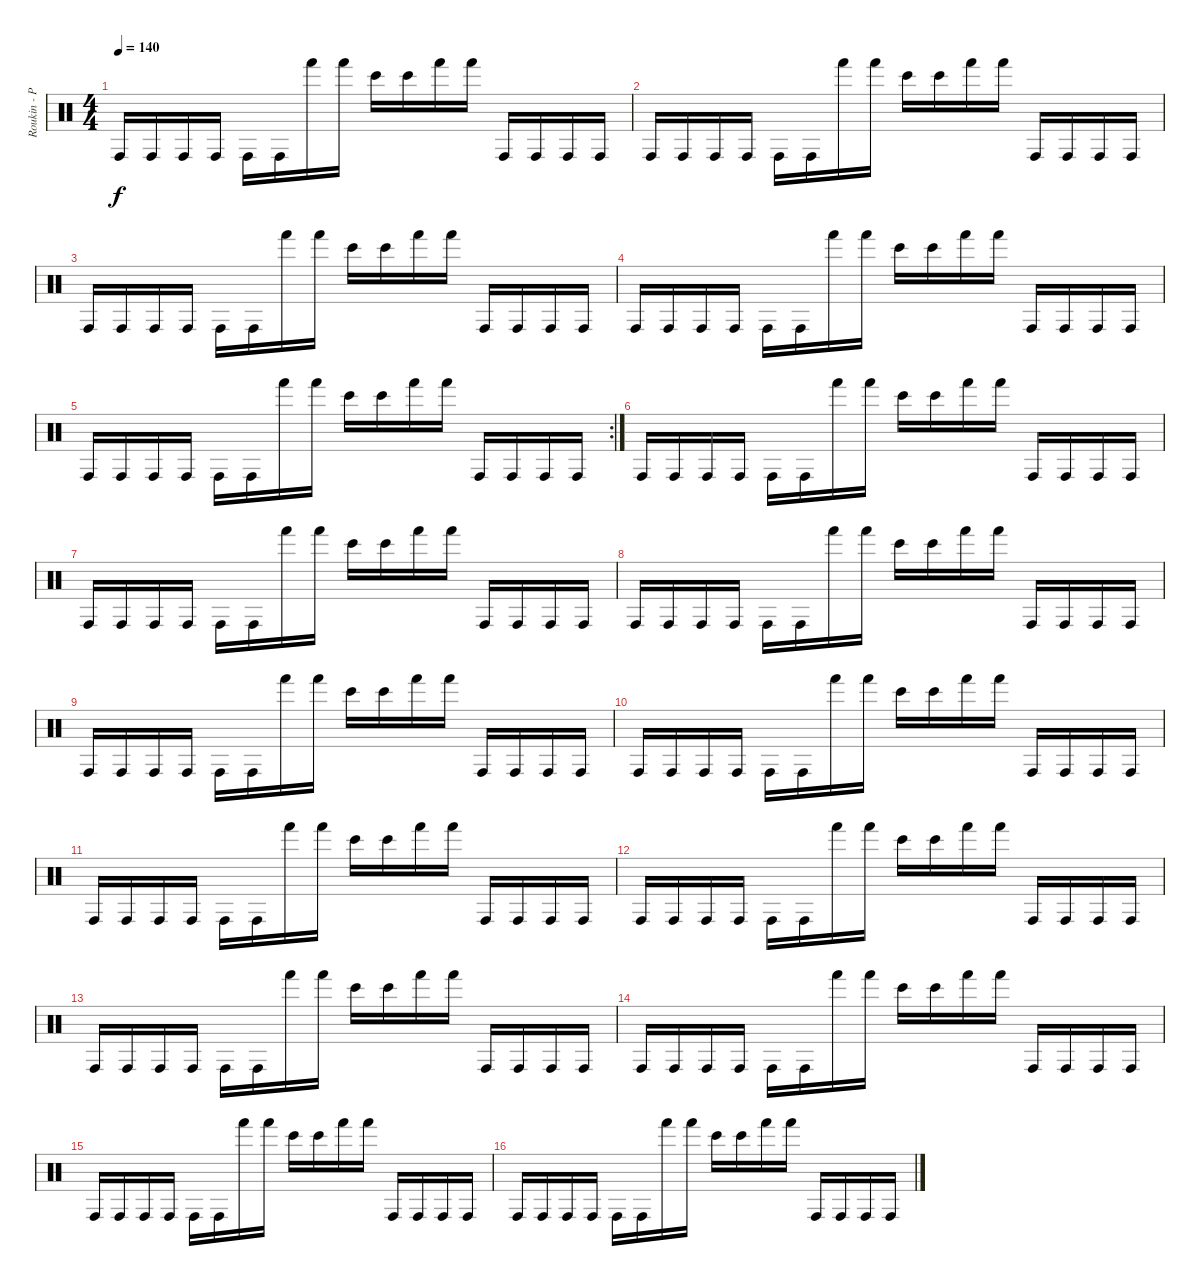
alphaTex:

\track ("Roukin - Percus" "Roukin - P") {instrument percussion}
\staff {score}
\articulation defaults
\ts (4 4)
\tempo 140
\clef neutral
\ks c "Conga high (hit)".16{dy f} "Conga high (hit)".16 "Conga high (hit)".16 "Conga high (hit)".16 "Conga high (hit)".16 "Conga high (hit)".16 "Hand (hit)".16 "Hand (hit)".16 "Bongo High (hit)".16 "Bongo High (hit)".16 "Hand (hit)".16 "Hand (hit)".16 "Conga high (hit)".16 "Conga high (hit)".16 "Conga high (hit)".16 "Conga high (hit)".16
|
"Conga high (hit)".16 "Conga high (hit)".16 "Conga high (hit)".16 "Conga high (hit)".16 "Conga high (hit)".16 "Conga high (hit)".16 "Hand (hit)".16 "Hand (hit)".16 "Bongo High (hit)".16 "Bongo High (hit)".16 "Hand (hit)".16 "Hand (hit)".16 "Conga high (hit)".16 "Conga high (hit)".16 "Conga high (hit)".16 "Conga high (hit)".16 |
"Conga high (hit)".16 "Conga high (hit)".16 "Conga high (hit)".16 "Conga high (hit)".16 "Conga high (hit)".16 "Conga high (hit)".16 "Hand (hit)".16 "Hand (hit)".16 "Bongo High (hit)".16 "Bongo High (hit)".16 "Hand (hit)".16 "Hand (hit)".16 "Conga high (hit)".16 "Conga high (hit)".16 "Conga high (hit)".16 "Conga high (hit)".16 |
"Conga high (hit)".16 "Conga high (hit)".16 "Conga high (hit)".16 "Conga high (hit)".16 "Conga high (hit)".16 "Conga high (hit)".16 "Hand (hit)".16 "Hand (hit)".16 "Bongo High (hit)".16 "Bongo High (hit)".16 "Hand (hit)".16 "Hand (hit)".16 "Conga high (hit)".16 "Conga high (hit)".16 "Conga high (hit)".16 "Conga high (hit)".16 |
\rc 2 "Conga high (hit)".16 "Conga high (hit)".16 "Conga high (hit)".16 "Conga high (hit)".16 "Conga high (hit)".16 "Conga high (hit)".16 "Hand (hit)".16 "Hand (hit)".16 "Bongo High (hit)".16 "Bongo High (hit)".16 "Hand (hit)".16 "Hand (hit)".16 "Conga high (hit)".16 "Conga high (hit)".16 "Conga high (hit)".16 "Conga high (hit)".16
|
"Conga high (hit)".16 "Conga high (hit)".16 "Conga high (hit)".16 "Conga high (hit)".16 "Conga high (hit)".16 "Conga high (hit)".16 "Hand (hit)".16 "Hand (hit)".16 "Bongo High (hit)".16 "Bongo High (hit)".16 "Hand (hit)".16 "Hand (hit)".16 "Conga high (hit)".16 "Conga high (hit)".16 "Conga high (hit)".16 "Conga high (hit)".16 |
"Conga high (hit)".16 "Conga high (hit)".16 "Conga high (hit)".16 "Conga high (hit)".16 "Conga high (hit)".16 "Conga high (hit)".16 "Hand (hit)".16 "Hand (hit)".16 "Bongo High (hit)".16 "Bongo High (hit)".16 "Hand (hit)".16 "Hand (hit)".16 "Conga high (hit)".16 "Conga high (hit)".16 "Conga high (hit)".16 "Conga high (hit)".16 |
"Conga high (hit)".16 "Conga high (hit)".16 "Conga high (hit)".16 "Conga high (hit)".16 "Conga high (hit)".16 "Conga high (hit)".16 "Hand (hit)".16 "Hand (hit)".16 "Bongo High (hit)".16 "Bongo High (hit)".16 "Hand (hit)".16 "Hand (hit)".16 "Conga high (hit)".16 "Conga high (hit)".16 "Conga high (hit)".16 "Conga high (hit)".16 |
"Conga high (hit)".16 "Conga high (hit)".16 "Conga high (hit)".16 "Conga high (hit)".16 "Conga high (hit)".16 "Conga high (hit)".16 "Hand (hit)".16 "Hand (hit)".16 "Bongo High (hit)".16 "Bongo High (hit)".16 "Hand (hit)".16 "Hand (hit)".16 "Conga high (hit)".16 "Conga high (hit)".16 "Conga high (hit)".16 "Conga high (hit)".16 |
"Conga high (hit)".16 "Conga high (hit)".16 "Conga high (hit)".16 "Conga high (hit)".16 "Conga high (hit)".16 "Conga high (hit)".16 "Hand (hit)".16 "Hand (hit)".16 "Bongo High (hit)".16 "Bongo High (hit)".16 "Hand (hit)".16 "Hand (hit)".16 "Conga high (hit)".16 "Conga high (hit)".16 "Conga high (hit)".16 "Conga high (hit)".16 |
"Conga high (hit)".16 "Conga high (hit)".16 "Conga high (hit)".16 "Conga high (hit)".16 "Conga high (hit)".16 "Conga high (hit)".16 "Hand (hit)".16 "Hand (hit)".16 "Bongo High (hit)".16 "Bongo High (hit)".16 "Hand (hit)".16 "Hand (hit)".16 "Conga high (hit)".16 "Conga high (hit)".16 "Conga high (hit)".16 "Conga high (hit)".16 |
"Conga high (hit)".16 "Conga high (hit)".16 "Conga high (hit)".16 "Conga high (hit)".16 "Conga high (hit)".16 "Conga high (hit)".16 "Hand (hit)".16 "Hand (hit)".16 "Bongo High (hit)".16 "Bongo High (hit)".16 "Hand (hit)".16 "Hand (hit)".16 "Conga high (hit)".16 "Conga high (hit)".16 "Conga high (hit)".16 "Conga high (hit)".16 |
"Conga high (hit)".16 "Conga high (hit)".16 "Conga high (hit)".16 "Conga high (hit)".16 "Conga high (hit)".16 "Conga high (hit)".16 "Hand (hit)".16 "Hand (hit)".16 "Bongo High (hit)".16 "Bongo High (hit)".16 "Hand (hit)".16 "Hand (hit)".16 "Conga high (hit)".16 "Conga high (hit)".16 "Conga high (hit)".16 "Conga high (hit)".16 |
"Conga high (hit)".16 "Conga high (hit)".16 "Conga high (hit)".16 "Conga high (hit)".16 "Conga high (hit)".16 "Conga high (hit)".16 "Hand (hit)".16 "Hand (hit)".16 "Bongo High (hit)".16 "Bongo High (hit)".16 "Hand (hit)".16 "Hand (hit)".16 "Conga high (hit)".16 "Conga high (hit)".16 "Conga high (hit)".16 "Conga high (hit)".16 |
"Conga high (hit)".16 "Conga high (hit)".16 "Conga high (hit)".16 "Conga high (hit)".16 "Conga high (hit)".16 "Conga high (hit)".16 "Hand (hit)".16 "Hand (hit)".16 "Bongo High (hit)".16 "Bongo High (hit)".16 "Hand (hit)".16 "Hand (hit)".16 "Conga high (hit)".16 "Conga high (hit)".16 "Conga high (hit)".16 "Conga high (hit)".16 |
"Conga high (hit)".16{volume 12} "Conga high (hit)".16 "Conga high (hit)".16 "Conga high (hit)".16 "Conga high (hit)".16 "Conga high (hit)".16 "Hand (hit)".16 "Hand (hit)".16 "Bongo High (hit)".16 "Bongo High (hit)".16 "Hand (hit)".16 "Hand (hit)".16 "Conga high (hit)".16 "Conga high (hit)".16 "Conga high (hit)".16 "Conga high (hit)".16
